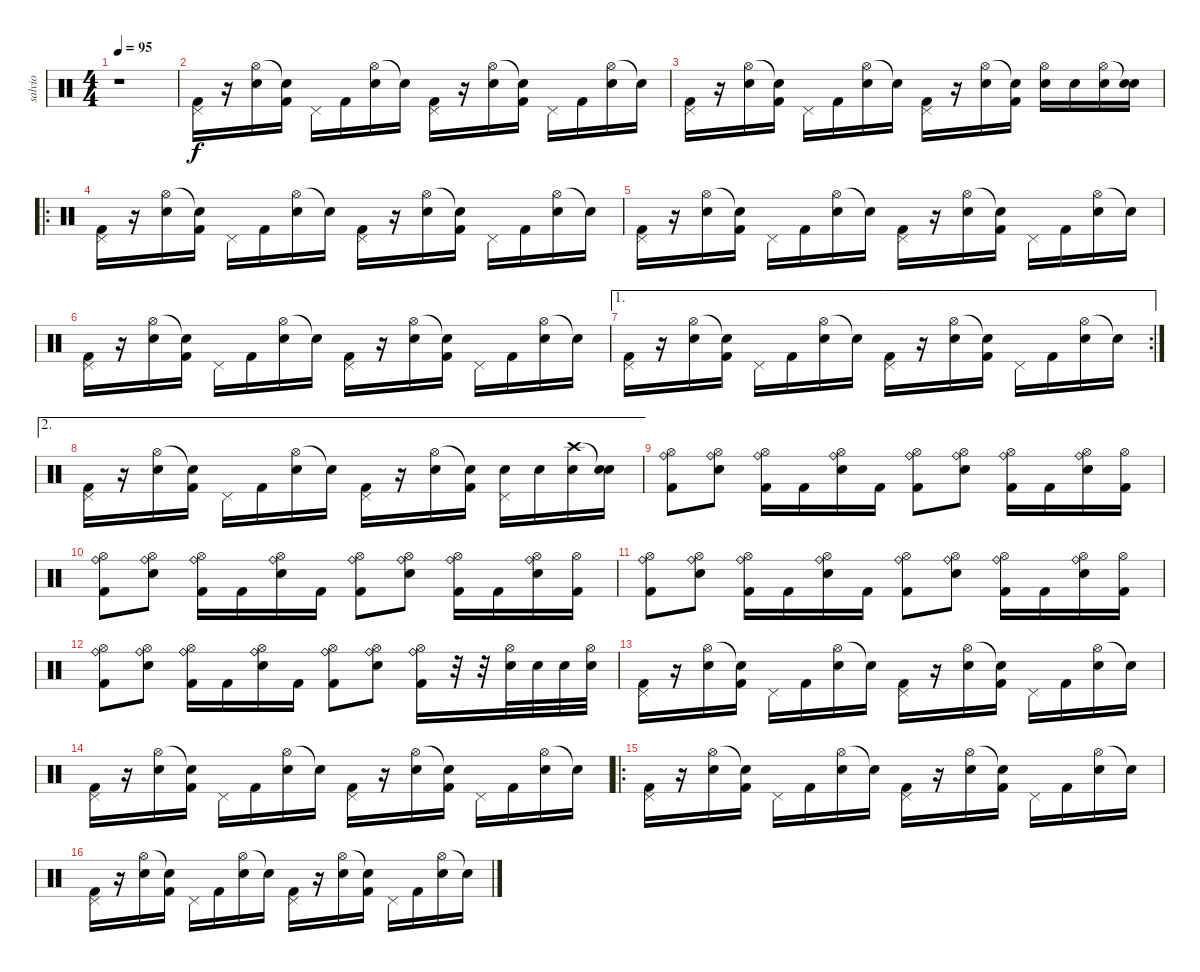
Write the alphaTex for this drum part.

\track ("salvio" "salvio") {instrument percussion}
\staff {score}
\articulation defaults
\ts (4 4)
\tempo 95
\clef neutral
\ks c
r.1{dy f} |
("Pedal Hi-Hat (hit)" "Kick (hit) 2").16 r.16 ("Hi-Hat (open)" "Snare (hit) 2").16 ("Snare (hit)"{t} "Kick (hit) 2").16 "Pedal Hi-Hat (hit)".16 "Kick (hit) 2".16 ("Hi-Hat (open)" "Snare (hit) 2").16 "Snare (hit)"{t}.16 ("Pedal Hi-Hat (hit)" "Kick (hit) 2").16 r.16 ("Hi-Hat (open)" "Snare (hit) 2").16 ("Snare (hit)"{t} "Kick (hit) 2").16 "Pedal Hi-Hat (hit)".16 "Kick (hit) 2".16 ("Hi-Hat (open)" "Snare (hit) 2").16 "Snare (hit)"{t}.16 |
("Pedal Hi-Hat (hit)" "Kick (hit) 2").16 r.16 ("Hi-Hat (open)" "Snare (hit) 2").16 ("Snare (hit)"{t} "Kick (hit) 2").16 "Pedal Hi-Hat (hit)".16 "Kick (hit) 2".16 ("Hi-Hat (open)" "Snare (hit) 2").16 "Snare (hit)"{t}.16 ("Pedal Hi-Hat (hit)" "Kick (hit) 2").16 r.16 ("Hi-Hat (open)" "Snare (hit) 2").16 ("Snare (hit)"{t} "Kick (hit) 2").16 ("Hi-Hat (open)" "Snare (hit) 2").16 "Snare (hit) 2".16 ("Hi-Hat (open)" "Snare (hit) 2").16 ("Snare (hit)"{t} "Snare (hit) 2").16 |
\ro
("Pedal Hi-Hat (hit)" "Kick (hit) 2").16 r.16 ("Hi-Hat (open)" "Snare (hit) 2").16 ("Snare (hit)"{t} "Kick (hit) 2").16 "Pedal Hi-Hat (hit)".16 "Kick (hit) 2".16 ("Hi-Hat (open)" "Snare (hit) 2").16 "Snare (hit)"{t}.16 ("Pedal Hi-Hat (hit)" "Kick (hit) 2").16 r.16 ("Hi-Hat (open)" "Snare (hit) 2").16 ("Snare (hit)"{t} "Kick (hit) 2").16 "Pedal Hi-Hat (hit)".16 "Kick (hit) 2".16 ("Hi-Hat (open)" "Snare (hit) 2").16 "Snare (hit)"{t}.16 |
("Pedal Hi-Hat (hit)" "Kick (hit) 2").16 r.16 ("Hi-Hat (open)" "Snare (hit) 2").16 ("Snare (hit)"{t} "Kick (hit) 2").16 "Pedal Hi-Hat (hit)".16 "Kick (hit) 2".16 ("Hi-Hat (open)" "Snare (hit) 2").16 "Snare (hit)"{t}.16 ("Pedal Hi-Hat (hit)" "Kick (hit) 2").16 r.16 ("Hi-Hat (open)" "Snare (hit) 2").16 ("Snare (hit)"{t} "Kick (hit) 2").16 "Pedal Hi-Hat (hit)".16 "Kick (hit) 2".16 ("Hi-Hat (open)" "Snare (hit) 2").16 "Snare (hit)"{t}.16 |
("Pedal Hi-Hat (hit)" "Kick (hit) 2").16 r.16 ("Hi-Hat (open)" "Snare (hit) 2").16 ("Snare (hit)"{t} "Kick (hit) 2").16 "Pedal Hi-Hat (hit)".16 "Kick (hit) 2".16 ("Hi-Hat (open)" "Snare (hit) 2").16 "Snare (hit)"{t}.16 ("Pedal Hi-Hat (hit)" "Kick (hit) 2").16 r.16 ("Hi-Hat (open)" "Snare (hit) 2").16 ("Snare (hit)"{t} "Kick (hit) 2").16 "Pedal Hi-Hat (hit)".16 "Kick (hit) 2".16 ("Hi-Hat (open)" "Snare (hit) 2").16 "Snare (hit)"{t}.16 |
\ae 1
\rc 2
("Pedal Hi-Hat (hit)" "Kick (hit) 2").16 r.16 ("Hi-Hat (open)" "Snare (hit) 2").16 ("Snare (hit)"{t} "Kick (hit) 2").16 "Pedal Hi-Hat (hit)".16 "Kick (hit) 2".16 ("Hi-Hat (open)" "Snare (hit) 2").16 "Snare (hit)"{t}.16 ("Pedal Hi-Hat (hit)" "Kick (hit) 2").16 r.16 ("Hi-Hat (open)" "Snare (hit) 2").16 ("Snare (hit)"{t} "Kick (hit) 2").16 "Pedal Hi-Hat (hit)".16 "Kick (hit) 2".16 ("Hi-Hat (open)" "Snare (hit) 2").16 "Snare (hit)"{t}.16 |
\ae 2
("Pedal Hi-Hat (hit)" "Kick (hit) 2").16 r.16 ("Hi-Hat (open)" "Snare (hit) 2").16 ("Snare (hit)"{t} "Kick (hit) 2").16 "Pedal Hi-Hat (hit)".16 "Kick (hit) 2".16 ("Hi-Hat (open)" "Snare (hit) 2").16 "Snare (hit)"{t}.16 ("Pedal Hi-Hat (hit)" "Kick (hit) 2").16 r.16 ("Hi-Hat (open)" "Snare (hit) 2").16 ("Snare (hit)"{t} "Kick (hit) 2").16 ("Pedal Hi-Hat (hit)" "Snare (hit) 2").16 "Snare (hit) 2".16 ("Crash high (hit)" "Snare (hit) 2").16 ("Snare (hit)"{t} "Snare (hit) 2").16 |
("Ride (bell)" "Kick (hit) 2" "Hi-Hat (open)").8 ("Ride (bell)" "Snare (hit) 2" "Hi-Hat (open)").8 ("Ride (bell)" "Kick (hit) 2" "Hi-Hat (open)").16 "Kick (hit) 2".16 ("Ride (bell)" "Snare (hit) 2" "Hi-Hat (open)").16 "Kick (hit) 2".16 ("Ride (bell)" "Kick (hit) 2" "Hi-Hat (open)").8 ("Ride (bell)" "Snare (hit) 2" "Hi-Hat (open)").8 ("Ride (bell)" "Kick (hit) 2" "Hi-Hat (open)").16 "Kick (hit) 2".16 ("Ride (bell)" "Snare (hit) 2" "Hi-Hat (open)").16 ("Hi-Hat (open)" "Kick (hit) 2").16 |
("Ride (bell)" "Kick (hit) 2" "Hi-Hat (open)").8 ("Ride (bell)" "Snare (hit) 2" "Hi-Hat (open)").8 ("Ride (bell)" "Kick (hit) 2" "Hi-Hat (open)").16 "Kick (hit) 2".16 ("Ride (bell)" "Snare (hit) 2" "Hi-Hat (open)").16 "Kick (hit) 2".16 ("Ride (bell)" "Kick (hit) 2" "Hi-Hat (open)").8 ("Ride (bell)" "Snare (hit) 2" "Hi-Hat (open)").8 ("Ride (bell)" "Kick (hit) 2" "Hi-Hat (open)").16 "Kick (hit) 2".16 ("Ride (bell)" "Snare (hit) 2" "Hi-Hat (open)").16 ("Hi-Hat (open)" "Kick (hit) 2").16 |
("Ride (bell)" "Kick (hit) 2" "Hi-Hat (open)").8 ("Ride (bell)" "Snare (hit) 2" "Hi-Hat (open)").8 ("Ride (bell)" "Kick (hit) 2" "Hi-Hat (open)").16 "Kick (hit) 2".16 ("Ride (bell)" "Snare (hit) 2" "Hi-Hat (open)").16 "Kick (hit) 2".16 ("Ride (bell)" "Kick (hit) 2" "Hi-Hat (open)").8 ("Ride (bell)" "Snare (hit) 2" "Hi-Hat (open)").8 ("Ride (bell)" "Kick (hit) 2" "Hi-Hat (open)").16 "Kick (hit) 2".16 ("Ride (bell)" "Snare (hit) 2" "Hi-Hat (open)").16 ("Hi-Hat (open)" "Kick (hit) 2").16 |
("Ride (bell)" "Kick (hit) 2" "Hi-Hat (open)").8 ("Ride (bell)" "Snare (hit) 2" "Hi-Hat (open)").8 ("Ride (bell)" "Kick (hit) 2" "Hi-Hat (open)").16 "Kick (hit) 2".16 ("Ride (bell)" "Snare (hit) 2" "Hi-Hat (open)").16 "Kick (hit) 2".16 ("Ride (bell)" "Kick (hit) 2" "Hi-Hat (open)").8 ("Ride (bell)" "Snare (hit) 2" "Hi-Hat (open)").8 ("Ride (bell)" "Kick (hit) 2" "Hi-Hat (open)").16 r.32 r.32 ("Hi-Hat (open)" "Snare (hit) 2").32 "Snare (hit) 2".32 "Snare (hit) 2".32 ("Hi-Hat (open)" "Snare (hit) 2").32 |
("Pedal Hi-Hat (hit)" "Kick (hit) 2").16 r.16 ("Hi-Hat (open)" "Snare (hit) 2").16 ("Snare (hit)"{t} "Kick (hit) 2").16 "Pedal Hi-Hat (hit)".16 "Kick (hit) 2".16 ("Hi-Hat (open)" "Snare (hit) 2").16 "Snare (hit)"{t}.16 ("Pedal Hi-Hat (hit)" "Kick (hit) 2").16 r.16 ("Hi-Hat (open)" "Snare (hit) 2").16 ("Snare (hit)"{t} "Kick (hit) 2").16 "Pedal Hi-Hat (hit)".16 "Kick (hit) 2".16 ("Hi-Hat (open)" "Snare (hit) 2").16 "Snare (hit)"{t}.16 |
("Pedal Hi-Hat (hit)" "Kick (hit) 2").16 r.16 ("Hi-Hat (open)" "Snare (hit) 2").16 ("Snare (hit)"{t} "Kick (hit) 2").16 "Pedal Hi-Hat (hit)".16 "Kick (hit) 2".16 ("Hi-Hat (open)" "Snare (hit) 2").16 "Snare (hit)"{t}.16 ("Pedal Hi-Hat (hit)" "Kick (hit) 2").16 r.16 ("Hi-Hat (open)" "Snare (hit) 2").16 ("Snare (hit)"{t} "Kick (hit) 2").16 "Pedal Hi-Hat (hit)".16 "Kick (hit) 2".16 ("Hi-Hat (open)" "Snare (hit) 2").16 "Snare (hit)"{t}.16 |
\ro
("Pedal Hi-Hat (hit)" "Kick (hit) 2").16 r.16 ("Hi-Hat (open)" "Snare (hit) 2").16 ("Snare (hit)"{t} "Kick (hit) 2").16 "Pedal Hi-Hat (hit)".16 "Kick (hit) 2".16 ("Hi-Hat (open)" "Snare (hit) 2").16 "Snare (hit)"{t}.16 ("Pedal Hi-Hat (hit)" "Kick (hit) 2").16 r.16 ("Hi-Hat (open)" "Snare (hit) 2").16 ("Snare (hit)"{t} "Kick (hit) 2").16 "Pedal Hi-Hat (hit)".16 "Kick (hit) 2".16 ("Hi-Hat (open)" "Snare (hit) 2").16 "Snare (hit)"{t}.16 |
("Pedal Hi-Hat (hit)" "Kick (hit) 2").16 r.16 ("Hi-Hat (open)" "Snare (hit) 2").16 ("Snare (hit)"{t} "Kick (hit) 2").16 "Pedal Hi-Hat (hit)".16 "Kick (hit) 2".16 ("Hi-Hat (open)" "Snare (hit) 2").16 "Snare (hit)"{t}.16 ("Pedal Hi-Hat (hit)" "Kick (hit) 2").16 r.16 ("Hi-Hat (open)" "Snare (hit) 2").16 ("Snare (hit)"{t} "Kick (hit) 2").16 "Pedal Hi-Hat (hit)".16 "Kick (hit) 2".16 ("Hi-Hat (open)" "Snare (hit) 2").16 "Snare (hit)"{t}.16
